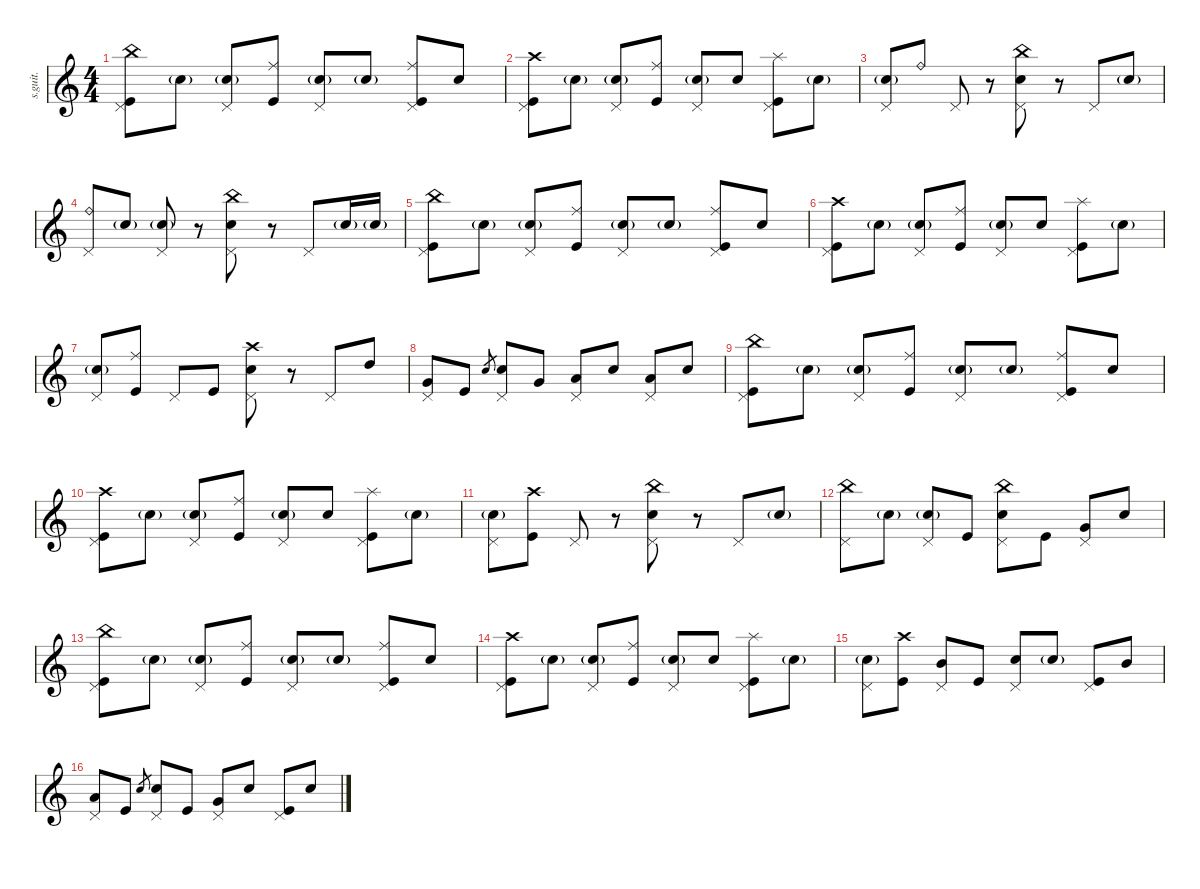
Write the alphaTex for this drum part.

\defaultSystemsLayout 4
\hideDynamics
\bracketExtendMode nobrackets
\track ("Matt Halpern" "s.guit.") {instrument percussion}
\staff {score}
\articulation defaults
\ts (4 4)
\tempo (213 hide)
\clef g2
\ks c
("China (hit)" "Pedal Hi-Hat (hit)" "Kick (hit)").8{lyrics (0 "") lyrics (1 "") lyrics (2 "") lyrics (3 "") lyrics (4 "") dy mf} "Snare (hit) 2"{g}.8{lyrics (0 "") lyrics (1 "") lyrics (2 "") lyrics (3 "") lyrics (4 "")} ("Pedal Hi-Hat (hit)" "Snare (hit) 2"{g}).8{lyrics (0 "") lyrics (1 "") lyrics (2 "") lyrics (3 "") lyrics (4 "")} ("Ride (middle)" "Kick (hit)").8{lyrics (0 "") lyrics (1 "") lyrics (2 "") lyrics (3 "") lyrics (4 "")} ("Pedal Hi-Hat (hit)" "Snare (hit) 2"{g}).8{lyrics (0 "") lyrics (1 "") lyrics (2 "") lyrics (3 "") lyrics (4 "")} "Snare (hit) 2"{g}.8{lyrics (0 "") lyrics (1 "") lyrics (2 "") lyrics (3 "") lyrics (4 "")} ("Ride (middle)" "Pedal Hi-Hat (hit)" "Kick (hit)").8{lyrics (0 "") lyrics (1 "") lyrics (2 "") lyrics (3 "") lyrics (4 "")} "Snare (hit) 2".8{lyrics (0 "") lyrics (1 "") lyrics (2 "") lyrics (3 "") lyrics (4 "")} |
("Crash high (hit)" "Pedal Hi-Hat (hit)" "Kick (hit)").8{lyrics (0 "") lyrics (1 "") lyrics (2 "") lyrics (3 "") lyrics (4 "")} "Snare (hit) 2"{g}.8{lyrics (0 "") lyrics (1 "") lyrics (2 "") lyrics (3 "") lyrics (4 "")} ("Pedal Hi-Hat (hit)" "Snare (hit) 2"{g}).8{lyrics (0 "") lyrics (1 "") lyrics (2 "") lyrics (3 "") lyrics (4 "")} ("Ride (middle)" "Kick (hit)").8{lyrics (0 "") lyrics (1 "") lyrics (2 "") lyrics (3 "") lyrics (4 "")} ("Pedal Hi-Hat (hit)" "Snare (hit) 2"{g}).8{lyrics (0 "") lyrics (1 "") lyrics (2 "") lyrics (3 "") lyrics (4 "")} "Snare (hit) 2".8{lyrics (0 "") lyrics (1 "") lyrics (2 "") lyrics (3 "") lyrics (4 "")} ("Splash (hit)" "Pedal Hi-Hat (hit)" "Kick (hit)").8{lyrics (0 "") lyrics (1 "") lyrics (2 "") lyrics (3 "") lyrics (4 "")} "Snare (hit) 2"{g}.8{lyrics (0 "") lyrics (1 "") lyrics (2 "") lyrics (3 "") lyrics (4 "")} |
("Pedal Hi-Hat (hit)" "Snare (hit) 2"{g}).8{lyrics (0 "") lyrics (1 "") lyrics (2 "") lyrics (3 "") lyrics (4 "")} "Ride (bell)".8{lyrics (0 "") lyrics (1 "") lyrics (2 "") lyrics (3 "") lyrics (4 "")} "Pedal Hi-Hat (hit)".8{lyrics (0 "") lyrics (1 "") lyrics (2 "") lyrics (3 "") lyrics (4 "")} r.8 ("China (hit)" "Pedal Hi-Hat (hit)" "Snare (hit) 2").8{lyrics (0 "") lyrics (1 "") lyrics (2 "") lyrics (3 "") lyrics (4 "")} r.8 "Pedal Hi-Hat (hit)".8{lyrics (0 "") lyrics (1 "") lyrics (2 "") lyrics (3 "") lyrics (4 "")} "Snare (hit) 2"{g}.8{lyrics (0 "") lyrics (1 "") lyrics (2 "") lyrics (3 "") lyrics (4 "")} |
("Ride (bell)" "Pedal Hi-Hat (hit)").8{lyrics (0 "") lyrics (1 "") lyrics (2 "") lyrics (3 "") lyrics (4 "")} "Snare (hit) 2"{g}.8{lyrics (0 "") lyrics (1 "") lyrics (2 "") lyrics (3 "") lyrics (4 "")} ("Pedal Hi-Hat (hit)" "Snare (hit) 2"{g}).8{lyrics (0 "") lyrics (1 "") lyrics (2 "") lyrics (3 "") lyrics (4 "")} r.8 ("China (hit)" "Pedal Hi-Hat (hit)" "Snare (hit) 2").8{lyrics (0 "") lyrics (1 "") lyrics (2 "") lyrics (3 "") lyrics (4 "")} r.8 "Pedal Hi-Hat (hit)".8{lyrics (0 "") lyrics (1 "") lyrics (2 "") lyrics (3 "") lyrics (4 "")} "Snare (hit) 2"{g}.16{lyrics (0 "") lyrics (1 "") lyrics (2 "") lyrics (3 "") lyrics (4 "")} "Snare (hit) 2"{g}.16{lyrics (0 "") lyrics (1 "") lyrics (2 "") lyrics (3 "") lyrics (4 "")} |
("China (hit)" "Pedal Hi-Hat (hit)" "Kick (hit)").8{lyrics (0 "") lyrics (1 "") lyrics (2 "") lyrics (3 "") lyrics (4 "")} "Snare (hit) 2"{g}.8{lyrics (0 "") lyrics (1 "") lyrics (2 "") lyrics (3 "") lyrics (4 "")} ("Pedal Hi-Hat (hit)" "Snare (hit) 2"{g}).8{lyrics (0 "") lyrics (1 "") lyrics (2 "") lyrics (3 "") lyrics (4 "")} ("Ride (middle)" "Kick (hit)").8{lyrics (0 "") lyrics (1 "") lyrics (2 "") lyrics (3 "") lyrics (4 "")} ("Pedal Hi-Hat (hit)" "Snare (hit) 2"{g}).8{lyrics (0 "") lyrics (1 "") lyrics (2 "") lyrics (3 "") lyrics (4 "")} "Snare (hit) 2"{g}.8{lyrics (0 "") lyrics (1 "") lyrics (2 "") lyrics (3 "") lyrics (4 "")} ("Ride (middle)" "Pedal Hi-Hat (hit)" "Kick (hit)").8{lyrics (0 "") lyrics (1 "") lyrics (2 "") lyrics (3 "") lyrics (4 "")} "Snare (hit) 2".8{lyrics (0 "") lyrics (1 "") lyrics (2 "") lyrics (3 "") lyrics (4 "")} |
("Crash high (hit)" "Pedal Hi-Hat (hit)" "Kick (hit)").8{lyrics (0 "") lyrics (1 "") lyrics (2 "") lyrics (3 "") lyrics (4 "")} "Snare (hit) 2"{g}.8{lyrics (0 "") lyrics (1 "") lyrics (2 "") lyrics (3 "") lyrics (4 "")} ("Pedal Hi-Hat (hit)" "Snare (hit) 2"{g}).8{lyrics (0 "") lyrics (1 "") lyrics (2 "") lyrics (3 "") lyrics (4 "")} ("Ride (middle)" "Kick (hit)").8{lyrics (0 "") lyrics (1 "") lyrics (2 "") lyrics (3 "") lyrics (4 "")} ("Pedal Hi-Hat (hit)" "Snare (hit) 2"{g}).8{lyrics (0 "") lyrics (1 "") lyrics (2 "") lyrics (3 "") lyrics (4 "")} "Snare (hit) 2".8{lyrics (0 "") lyrics (1 "") lyrics (2 "") lyrics (3 "") lyrics (4 "")} ("Splash (hit)" "Pedal Hi-Hat (hit)" "Kick (hit)").8{lyrics (0 "") lyrics (1 "") lyrics (2 "") lyrics (3 "") lyrics (4 "")} "Snare (hit) 2"{g}.8{lyrics (0 "") lyrics (1 "") lyrics (2 "") lyrics (3 "") lyrics (4 "")} |
("Pedal Hi-Hat (hit)" "Snare (hit) 2"{g}).8{lyrics (0 "") lyrics (1 "") lyrics (2 "") lyrics (3 "") lyrics (4 "")} ("Ride (middle)" "Kick (hit)").8{lyrics (0 "") lyrics (1 "") lyrics (2 "") lyrics (3 "") lyrics (4 "")} "Pedal Hi-Hat (hit)".8{lyrics (0 "") lyrics (1 "") lyrics (2 "") lyrics (3 "") lyrics (4 "")} "Kick (hit)".8{lyrics (0 "") lyrics (1 "") lyrics (2 "") lyrics (3 "") lyrics (4 "")} ("Crash high (hit)" "Pedal Hi-Hat (hit)" "Snare (hit) 2").8{lyrics (0 "") lyrics (1 "") lyrics (2 "") lyrics (3 "") lyrics (4 "")} r.8 "Pedal Hi-Hat (hit)".8{lyrics (0 "") lyrics (1 "") lyrics (2 "") lyrics (3 "") lyrics (4 "")} "High Tom (hit)".8{lyrics (0 "") lyrics (1 "") lyrics (2 "") lyrics (3 "") lyrics (4 "")} |
("Pedal Hi-Hat (hit)" "Very Low Tom (hit)").8{lyrics (0 "") lyrics (1 "") lyrics (2 "") lyrics (3 "") lyrics (4 "")} "Kick (hit)".8{lyrics (0 "") lyrics (1 "") lyrics (2 "") lyrics (3 "") lyrics (4 "")} "Snare (hit) 2".8{lyrics (0 "") lyrics (1 "") lyrics (2 "") lyrics (3 "") lyrics (4 "") gr} ("Pedal Hi-Hat (hit)" "Snare (hit) 2").8{lyrics (0 "") lyrics (1 "") lyrics (2 "") lyrics (3 "") lyrics (4 "")} "Very Low Tom (hit)".8{lyrics (0 "") lyrics (1 "") lyrics (2 "") lyrics (3 "") lyrics (4 "")} ("Pedal Hi-Hat (hit)" "Low Tom (hit)").8{lyrics (0 "") lyrics (1 "") lyrics (2 "") lyrics (3 "") lyrics (4 "")} "Snare (hit) 2".8{lyrics (0 "") lyrics (1 "") lyrics (2 "") lyrics (3 "") lyrics (4 "")} ("Pedal Hi-Hat (hit)" "Low Tom (hit)").8{lyrics (0 "") lyrics (1 "") lyrics (2 "") lyrics (3 "") lyrics (4 "")} "Snare (hit) 2".8{lyrics (0 "") lyrics (1 "") lyrics (2 "") lyrics (3 "") lyrics (4 "")} |
("China (hit)" "Pedal Hi-Hat (hit)" "Kick (hit)").8{lyrics (0 "") lyrics (1 "") lyrics (2 "") lyrics (3 "") lyrics (4 "")} "Snare (hit) 2"{g}.8{lyrics (0 "") lyrics (1 "") lyrics (2 "") lyrics (3 "") lyrics (4 "")} ("Pedal Hi-Hat (hit)" "Snare (hit) 2"{g}).8{lyrics (0 "") lyrics (1 "") lyrics (2 "") lyrics (3 "") lyrics (4 "")} ("Ride (middle)" "Kick (hit)").8{lyrics (0 "") lyrics (1 "") lyrics (2 "") lyrics (3 "") lyrics (4 "")} ("Pedal Hi-Hat (hit)" "Snare (hit) 2"{g}).8{lyrics (0 "") lyrics (1 "") lyrics (2 "") lyrics (3 "") lyrics (4 "")} "Snare (hit) 2"{g}.8{lyrics (0 "") lyrics (1 "") lyrics (2 "") lyrics (3 "") lyrics (4 "")} ("Ride (middle)" "Pedal Hi-Hat (hit)" "Kick (hit)").8{lyrics (0 "") lyrics (1 "") lyrics (2 "") lyrics (3 "") lyrics (4 "")} "Snare (hit) 2".8{lyrics (0 "") lyrics (1 "") lyrics (2 "") lyrics (3 "") lyrics (4 "")} |
("Crash high (hit)" "Pedal Hi-Hat (hit)" "Kick (hit)").8{lyrics (0 "") lyrics (1 "") lyrics (2 "") lyrics (3 "") lyrics (4 "")} "Snare (hit) 2"{g}.8{lyrics (0 "") lyrics (1 "") lyrics (2 "") lyrics (3 "") lyrics (4 "")} ("Pedal Hi-Hat (hit)" "Snare (hit) 2"{g}).8{lyrics (0 "") lyrics (1 "") lyrics (2 "") lyrics (3 "") lyrics (4 "")} ("Ride (middle)" "Kick (hit)").8{lyrics (0 "") lyrics (1 "") lyrics (2 "") lyrics (3 "") lyrics (4 "")} ("Pedal Hi-Hat (hit)" "Snare (hit) 2"{g}).8{lyrics (0 "") lyrics (1 "") lyrics (2 "") lyrics (3 "") lyrics (4 "")} "Snare (hit) 2".8{lyrics (0 "") lyrics (1 "") lyrics (2 "") lyrics (3 "") lyrics (4 "")} ("Splash (hit)" "Pedal Hi-Hat (hit)" "Kick (hit)").8{lyrics (0 "") lyrics (1 "") lyrics (2 "") lyrics (3 "") lyrics (4 "")} "Snare (hit) 2"{g}.8{lyrics (0 "") lyrics (1 "") lyrics (2 "") lyrics (3 "") lyrics (4 "")} |
("Pedal Hi-Hat (hit)" "Snare (hit) 2"{g}).8{lyrics (0 "") lyrics (1 "") lyrics (2 "") lyrics (3 "") lyrics (4 "")} ("Crash high (hit)" "Kick (hit)").8{lyrics (0 "") lyrics (1 "") lyrics (2 "") lyrics (3 "") lyrics (4 "")} "Pedal Hi-Hat (hit)".8{lyrics (0 "") lyrics (1 "") lyrics (2 "") lyrics (3 "") lyrics (4 "")} r.8 ("China (hit)" "Pedal Hi-Hat (hit)" "Snare (hit) 2").8{lyrics (0 "") lyrics (1 "") lyrics (2 "") lyrics (3 "") lyrics (4 "")} r.8 "Pedal Hi-Hat (hit)".8{lyrics (0 "") lyrics (1 "") lyrics (2 "") lyrics (3 "") lyrics (4 "")} "Snare (hit) 2"{g}.8{lyrics (0 "") lyrics (1 "") lyrics (2 "") lyrics (3 "") lyrics (4 "")} |
("China (hit)" "Pedal Hi-Hat (hit)").8{lyrics (0 "") lyrics (1 "") lyrics (2 "") lyrics (3 "") lyrics (4 "")} "Snare (hit) 2"{g}.8{lyrics (0 "") lyrics (1 "") lyrics (2 "") lyrics (3 "") lyrics (4 "")} ("Pedal Hi-Hat (hit)" "Snare (hit) 2"{g}).8{lyrics (0 "") lyrics (1 "") lyrics (2 "") lyrics (3 "") lyrics (4 "")} "Kick (hit)".8{lyrics (0 "") lyrics (1 "") lyrics (2 "") lyrics (3 "") lyrics (4 "")} ("China (hit)" "Pedal Hi-Hat (hit)" "Snare (hit) 2").8{lyrics (0 "") lyrics (1 "") lyrics (2 "") lyrics (3 "") lyrics (4 "")} "Kick (hit)".8{lyrics (0 "") lyrics (1 "") lyrics (2 "") lyrics (3 "") lyrics (4 "")} ("Pedal Hi-Hat (hit)" "Very Low Tom (hit)").8{lyrics (0 "") lyrics (1 "") lyrics (2 "") lyrics (3 "") lyrics (4 "")} "Snare (hit) 2".8{lyrics (0 "") lyrics (1 "") lyrics (2 "") lyrics (3 "") lyrics (4 "")} |
("China (hit)" "Pedal Hi-Hat (hit)" "Kick (hit)").8{lyrics (0 "") lyrics (1 "") lyrics (2 "") lyrics (3 "") lyrics (4 "")} "Snare (hit) 2"{g}.8{lyrics (0 "") lyrics (1 "") lyrics (2 "") lyrics (3 "") lyrics (4 "")} ("Pedal Hi-Hat (hit)" "Snare (hit) 2"{g}).8{lyrics (0 "") lyrics (1 "") lyrics (2 "") lyrics (3 "") lyrics (4 "")} ("Ride (middle)" "Kick (hit)").8{lyrics (0 "") lyrics (1 "") lyrics (2 "") lyrics (3 "") lyrics (4 "")} ("Pedal Hi-Hat (hit)" "Snare (hit) 2"{g}).8{lyrics (0 "") lyrics (1 "") lyrics (2 "") lyrics (3 "") lyrics (4 "")} "Snare (hit) 2"{g}.8{lyrics (0 "") lyrics (1 "") lyrics (2 "") lyrics (3 "") lyrics (4 "")} ("Ride (middle)" "Pedal Hi-Hat (hit)" "Kick (hit)").8{lyrics (0 "") lyrics (1 "") lyrics (2 "") lyrics (3 "") lyrics (4 "")} "Snare (hit) 2".8{lyrics (0 "") lyrics (1 "") lyrics (2 "") lyrics (3 "") lyrics (4 "")} |
("Crash high (hit)" "Pedal Hi-Hat (hit)" "Kick (hit)").8{lyrics (0 "") lyrics (1 "") lyrics (2 "") lyrics (3 "") lyrics (4 "")} "Snare (hit) 2"{g}.8{lyrics (0 "") lyrics (1 "") lyrics (2 "") lyrics (3 "") lyrics (4 "")} ("Pedal Hi-Hat (hit)" "Snare (hit) 2"{g}).8{lyrics (0 "") lyrics (1 "") lyrics (2 "") lyrics (3 "") lyrics (4 "")} ("Ride (middle)" "Kick (hit)").8{lyrics (0 "") lyrics (1 "") lyrics (2 "") lyrics (3 "") lyrics (4 "")} ("Pedal Hi-Hat (hit)" "Snare (hit) 2"{g}).8{lyrics (0 "") lyrics (1 "") lyrics (2 "") lyrics (3 "") lyrics (4 "")} "Snare (hit) 2".8{lyrics (0 "") lyrics (1 "") lyrics (2 "") lyrics (3 "") lyrics (4 "")} ("Splash (hit)" "Pedal Hi-Hat (hit)" "Kick (hit)").8{lyrics (0 "") lyrics (1 "") lyrics (2 "") lyrics (3 "") lyrics (4 "")} "Snare (hit) 2"{g}.8{lyrics (0 "") lyrics (1 "") lyrics (2 "") lyrics (3 "") lyrics (4 "")} |
("Pedal Hi-Hat (hit)" "Snare (hit) 2"{g}).8{lyrics (0 "") lyrics (1 "") lyrics (2 "") lyrics (3 "") lyrics (4 "")} ("Crash high (hit)" "Kick (hit)").8{lyrics (0 "") lyrics (1 "") lyrics (2 "") lyrics (3 "") lyrics (4 "")} ("Pedal Hi-Hat (hit)" "Mid Tom (hit)").8{lyrics (0 "") lyrics (1 "") lyrics (2 "") lyrics (3 "") lyrics (4 "")} "Kick (hit)".8{lyrics (0 "") lyrics (1 "") lyrics (2 "") lyrics (3 "") lyrics (4 "")} ("Pedal Hi-Hat (hit)" "Snare (hit) 2").8{lyrics (0 "") lyrics (1 "") lyrics (2 "") lyrics (3 "") lyrics (4 "")} "Snare (hit) 2"{g}.8{lyrics (0 "") lyrics (1 "") lyrics (2 "") lyrics (3 "") lyrics (4 "")} ("Pedal Hi-Hat (hit)" "Kick (hit)").8{lyrics (0 "") lyrics (1 "") lyrics (2 "") lyrics (3 "") lyrics (4 "")} "Mid Tom (hit)".8{lyrics (0 "") lyrics (1 "") lyrics (2 "") lyrics (3 "") lyrics (4 "")} |
("Pedal Hi-Hat (hit)" "Low Tom (hit)").8{lyrics (0 "") lyrics (1 "") lyrics (2 "") lyrics (3 "") lyrics (4 "")} "Kick (hit)".8{lyrics (0 "") lyrics (1 "") lyrics (2 "") lyrics (3 "") lyrics (4 "")} "Snare (hit) 2".8{lyrics (0 "") lyrics (1 "") lyrics (2 "") lyrics (3 "") lyrics (4 "") gr} ("Pedal Hi-Hat (hit)" "Snare (hit) 2").8{lyrics (0 "") lyrics (1 "") lyrics (2 "") lyrics (3 "") lyrics (4 "")} "Kick (hit)".8{lyrics (0 "") lyrics (1 "") lyrics (2 "") lyrics (3 "") lyrics (4 "")} ("Pedal Hi-Hat (hit)" "Very Low Tom (hit)").8{lyrics (0 "") lyrics (1 "") lyrics (2 "") lyrics (3 "") lyrics (4 "")} "Snare (hit) 2".8{lyrics (0 "") lyrics (1 "") lyrics (2 "") lyrics (3 "") lyrics (4 "")} ("Pedal Hi-Hat (hit)" "Kick (hit)").8{lyrics (0 "") lyrics (1 "") lyrics (2 "") lyrics (3 "") lyrics (4 "")} "Snare (hit) 2".8{lyrics (0 "") lyrics (1 "") lyrics (2 "") lyrics (3 "") lyrics (4 "")}
